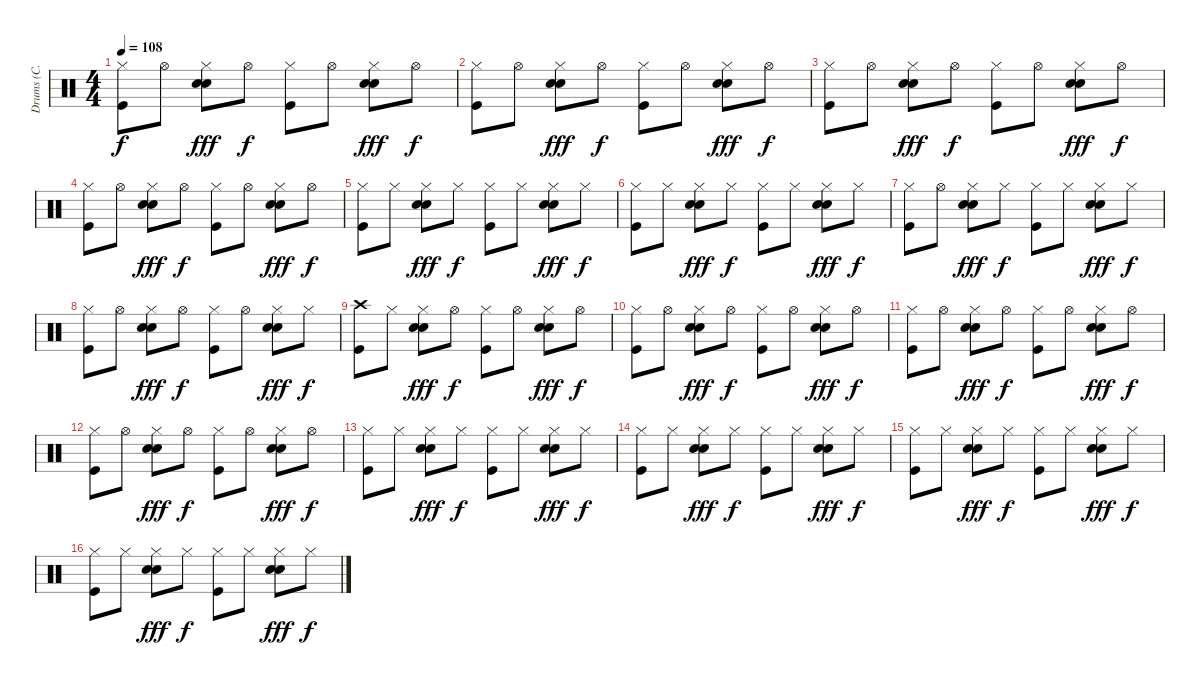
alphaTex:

\track ("Drums (C. Watts)" "Drums (C. ") {instrument percussion}
\staff {score}
\articulation defaults
\ts (4 4)
\tempo 108
\clef neutral
\ks c
("Hi-Hat (closed)" "Kick (hit)").8{dy f} "Hi-Hat (open)".8 ("Hi-Hat (closed)" "Snare (hit) 2" "Electric Snare (hit)").8{dy fff} "Hi-Hat (open)".8{dy f} ("Hi-Hat (closed)" "Kick (hit)").8 "Hi-Hat (open)".8 ("Hi-Hat (closed)" "Snare (hit) 2" "Electric Snare (hit)").8{dy fff} "Hi-Hat (open)".8{dy f} |
("Hi-Hat (closed)" "Kick (hit)").8 "Hi-Hat (open)".8 ("Hi-Hat (closed)" "Snare (hit) 2" "Electric Snare (hit)").8{dy fff} "Hi-Hat (open)".8{dy f} ("Hi-Hat (closed)" "Kick (hit)").8 "Hi-Hat (open)".8 ("Hi-Hat (closed)" "Snare (hit) 2" "Electric Snare (hit)").8{dy fff} "Hi-Hat (open)".8{dy f} |
("Hi-Hat (closed)" "Kick (hit)").8 "Hi-Hat (open)".8 ("Hi-Hat (closed)" "Snare (hit) 2" "Electric Snare (hit)").8{dy fff} "Hi-Hat (open)".8{dy f} ("Hi-Hat (closed)" "Kick (hit)").8 "Hi-Hat (open)".8 ("Hi-Hat (closed)" "Snare (hit) 2" "Electric Snare (hit)").8{dy fff} "Hi-Hat (open)".8{dy f} |
("Hi-Hat (closed)" "Kick (hit)").8 "Hi-Hat (open)".8 ("Hi-Hat (closed)" "Snare (hit) 2" "Electric Snare (hit)").8{dy fff} "Hi-Hat (open)".8{dy f} ("Hi-Hat (closed)" "Kick (hit)").8 "Hi-Hat (open)".8 ("Hi-Hat (closed)" "Snare (hit) 2" "Electric Snare (hit)").8{dy fff} "Hi-Hat (open)".8{dy f} |
("Hi-Hat (closed)" "Kick (hit)").8 "Hi-Hat (closed)".8 ("Hi-Hat (closed)" "Snare (hit) 2" "Electric Snare (hit)").8{dy fff} "Hi-Hat (closed)".8{dy f} ("Hi-Hat (closed)" "Kick (hit)").8 "Hi-Hat (closed)".8 ("Hi-Hat (closed)" "Snare (hit) 2" "Electric Snare (hit)").8{dy fff} "Hi-Hat (closed)".8{dy f} |
("Hi-Hat (closed)" "Kick (hit)").8 "Hi-Hat (closed)".8 ("Hi-Hat (closed)" "Snare (hit) 2" "Electric Snare (hit)").8{dy fff} "Hi-Hat (closed)".8{dy f} ("Hi-Hat (closed)" "Kick (hit)").8 "Hi-Hat (closed)".8 ("Hi-Hat (closed)" "Snare (hit) 2" "Electric Snare (hit)").8{dy fff} "Hi-Hat (closed)".8{dy f} |
("Hi-Hat (closed)" "Kick (hit)").8 "Hi-Hat (open)".8 ("Hi-Hat (closed)" "Snare (hit) 2" "Electric Snare (hit)").8{dy fff} "Hi-Hat (closed)".8{dy f} ("Hi-Hat (closed)" "Kick (hit)").8 "Hi-Hat (closed)".8 ("Hi-Hat (closed)" "Snare (hit) 2" "Electric Snare (hit)").8{dy fff} "Hi-Hat (closed)".8{dy f} |
("Hi-Hat (closed)" "Kick (hit)").8 "Hi-Hat (open)".8 ("Hi-Hat (closed)" "Snare (hit) 2" "Electric Snare (hit)").8{dy fff} "Hi-Hat (open)".8{dy f} ("Hi-Hat (closed)" "Kick (hit)").8 "Hi-Hat (open)".8 ("Hi-Hat (closed)" "Snare (hit) 2" "Electric Snare (hit)").8{dy fff} "Hi-Hat (closed)".8{dy f} |
("Crash high (hit)" "Kick (hit)").8 "Hi-Hat (closed)".8 ("Hi-Hat (closed)" "Snare (hit) 2" "Electric Snare (hit)").8{dy fff} "Hi-Hat (open)".8{dy f} ("Hi-Hat (closed)" "Kick (hit)").8 "Hi-Hat (open)".8 ("Hi-Hat (closed)" "Snare (hit) 2" "Electric Snare (hit)").8{dy fff} "Hi-Hat (open)".8{dy f} |
("Hi-Hat (closed)" "Kick (hit)").8 "Hi-Hat (open)".8 ("Hi-Hat (closed)" "Snare (hit) 2" "Electric Snare (hit)").8{dy fff} "Hi-Hat (open)".8{dy f} ("Hi-Hat (closed)" "Kick (hit)").8 "Hi-Hat (open)".8 ("Hi-Hat (closed)" "Snare (hit) 2" "Electric Snare (hit)").8{dy fff} "Hi-Hat (open)".8{dy f} |
("Hi-Hat (closed)" "Kick (hit)").8 "Hi-Hat (open)".8 ("Hi-Hat (closed)" "Snare (hit) 2" "Electric Snare (hit)").8{dy fff} "Hi-Hat (open)".8{dy f} ("Hi-Hat (closed)" "Kick (hit)").8 "Hi-Hat (open)".8 ("Hi-Hat (closed)" "Snare (hit) 2" "Electric Snare (hit)").8{dy fff} "Hi-Hat (open)".8{dy f} |
("Hi-Hat (closed)" "Kick (hit)").8 "Hi-Hat (open)".8 ("Hi-Hat (closed)" "Snare (hit) 2" "Electric Snare (hit)").8{dy fff} "Hi-Hat (open)".8{dy f} ("Hi-Hat (closed)" "Kick (hit)").8 "Hi-Hat (open)".8 ("Hi-Hat (closed)" "Snare (hit) 2" "Electric Snare (hit)").8{dy fff} "Hi-Hat (open)".8{dy f} |
("Hi-Hat (closed)" "Kick (hit)").8 "Hi-Hat (closed)".8 ("Hi-Hat (closed)" "Snare (hit) 2" "Electric Snare (hit)").8{dy fff} "Hi-Hat (closed)".8{dy f} ("Hi-Hat (closed)" "Kick (hit)").8 "Hi-Hat (closed)".8 ("Hi-Hat (closed)" "Snare (hit) 2" "Electric Snare (hit)").8{dy fff} "Hi-Hat (closed)".8{dy f} |
("Hi-Hat (closed)" "Kick (hit)").8 "Hi-Hat (closed)".8 ("Hi-Hat (closed)" "Snare (hit) 2" "Electric Snare (hit)").8{dy fff} "Hi-Hat (closed)".8{dy f} ("Hi-Hat (closed)" "Kick (hit)").8 "Hi-Hat (closed)".8 ("Hi-Hat (closed)" "Snare (hit) 2" "Electric Snare (hit)").8{dy fff} "Hi-Hat (closed)".8{dy f} |
("Hi-Hat (closed)" "Kick (hit)").8 "Hi-Hat (closed)".8 ("Hi-Hat (closed)" "Snare (hit) 2" "Electric Snare (hit)").8{dy fff} "Hi-Hat (closed)".8{dy f} ("Hi-Hat (closed)" "Kick (hit)").8 "Hi-Hat (closed)".8 ("Hi-Hat (closed)" "Snare (hit) 2" "Electric Snare (hit)").8{dy fff} "Hi-Hat (closed)".8{dy f} |
("Hi-Hat (closed)" "Kick (hit)").8 "Hi-Hat (closed)".8 ("Hi-Hat (closed)" "Snare (hit) 2" "Electric Snare (hit)").8{dy fff} "Hi-Hat (closed)".8{dy f} ("Hi-Hat (closed)" "Kick (hit)").8 "Hi-Hat (closed)".8 ("Hi-Hat (closed)" "Snare (hit) 2" "Electric Snare (hit)").8{dy fff} "Hi-Hat (closed)".8{dy f}
